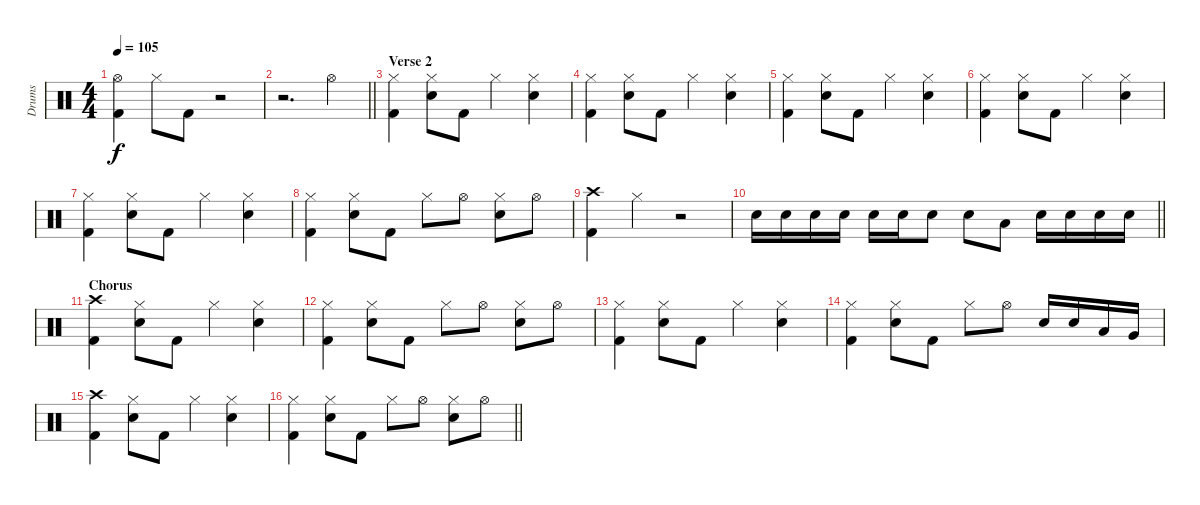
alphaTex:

\track ("Drums" "Drums") {instrument percussion}
\staff {score}
\articulation defaults
\ts (4 4)
\tempo 105
\clef neutral
\ks c
("Hi-Hat (open)" "Kick (hit) 2").4{dy f} "Hi-Hat (closed)".8 "Kick (hit) 2".8 r.2 |
\barLineRight lightlight
r.2{d} "Hi-Hat (open)".4 |
\section ("" "Verse 2")
("Hi-Hat (closed)" "Kick (hit) 2").4 ("Hi-Hat (closed)" "Snare (hit) 2").8 "Kick (hit) 2".8 "Hi-Hat (closed)".4 ("Hi-Hat (closed)" "Snare (hit) 2").4 |
("Hi-Hat (closed)" "Kick (hit) 2").4 ("Hi-Hat (closed)" "Snare (hit) 2").8 "Kick (hit) 2".8 "Hi-Hat (closed)".4 ("Hi-Hat (closed)" "Snare (hit) 2").4 |
("Hi-Hat (closed)" "Kick (hit) 2").4 ("Hi-Hat (closed)" "Snare (hit) 2").8 "Kick (hit) 2".8 "Hi-Hat (closed)".4 ("Hi-Hat (closed)" "Snare (hit) 2").4 |
("Hi-Hat (closed)" "Kick (hit) 2").4 ("Hi-Hat (closed)" "Snare (hit) 2").8 "Kick (hit) 2".8 "Hi-Hat (closed)".4 ("Hi-Hat (closed)" "Snare (hit) 2").4 |
("Hi-Hat (closed)" "Kick (hit) 2").4 ("Hi-Hat (closed)" "Snare (hit) 2").8 "Kick (hit) 2".8 "Hi-Hat (closed)".4 ("Hi-Hat (closed)" "Snare (hit) 2").4 |
("Hi-Hat (closed)" "Kick (hit) 2").4 ("Hi-Hat (closed)" "Snare (hit) 2").8 "Kick (hit) 2".8 "Hi-Hat (closed)".8 "Hi-Hat (open)".8 ("Hi-Hat (closed)" "Snare (hit) 2").8 "Hi-Hat (open)".8 |
("Crash high (hit)" "Kick (hit) 2").4 "Hi-Hat (closed)".4 r.2 |
\barLineRight lightlight "Snare (hit) 2".16 "Snare (hit) 2".16 "Snare (hit) 2".16 "Snare (hit) 2".16 "Snare (hit) 2".16 "Snare (hit) 2".16 "Snare (hit) 2".8 "Snare (hit) 2".8 "Low Tom (hit)".8 "Snare (hit) 2".16 "Snare (hit) 2".16 "Snare (hit) 2".16 "Snare (hit) 2".16
|
\section ("" "Chorus")
("Crash high (hit)" "Kick (hit) 2").4 ("Hi-Hat (closed)" "Snare (hit) 2").8 "Kick (hit) 2".8 "Hi-Hat (closed)".4 ("Hi-Hat (closed)" "Snare (hit) 2").4 |
("Hi-Hat (closed)" "Kick (hit) 2").4 ("Hi-Hat (closed)" "Snare (hit) 2").8 "Kick (hit) 2".8 "Hi-Hat (closed)".8 "Hi-Hat (open)".8 ("Hi-Hat (closed)" "Snare (hit) 2").8 "Hi-Hat (open)".8 |
("Hi-Hat (closed)" "Kick (hit) 2").4 ("Hi-Hat (closed)" "Snare (hit) 2").8 "Kick (hit) 2".8 "Hi-Hat (closed)".4 ("Hi-Hat (closed)" "Snare (hit) 2").4 |
("Hi-Hat (closed)" "Kick (hit) 2").4 ("Hi-Hat (closed)" "Snare (hit) 2").8 "Kick (hit) 2".8 "Hi-Hat (closed)".8 "Hi-Hat (open)".8 "Snare (hit) 2".16 "Snare (hit) 2".16 "Low Tom (hit)".16 "Very Low Tom (hit)".16 |
("Crash high (hit)" "Kick (hit) 2").4 ("Hi-Hat (closed)" "Snare (hit) 2").8 "Kick (hit) 2".8 "Hi-Hat (closed)".4 ("Hi-Hat (closed)" "Snare (hit) 2").4 |
\barLineRight lightlight
("Hi-Hat (closed)" "Kick (hit) 2").4 ("Hi-Hat (closed)" "Snare (hit) 2").8 "Kick (hit) 2".8 "Hi-Hat (closed)".8 "Hi-Hat (open)".8 ("Hi-Hat (closed)" "Snare (hit) 2").8 "Hi-Hat (open)".8
